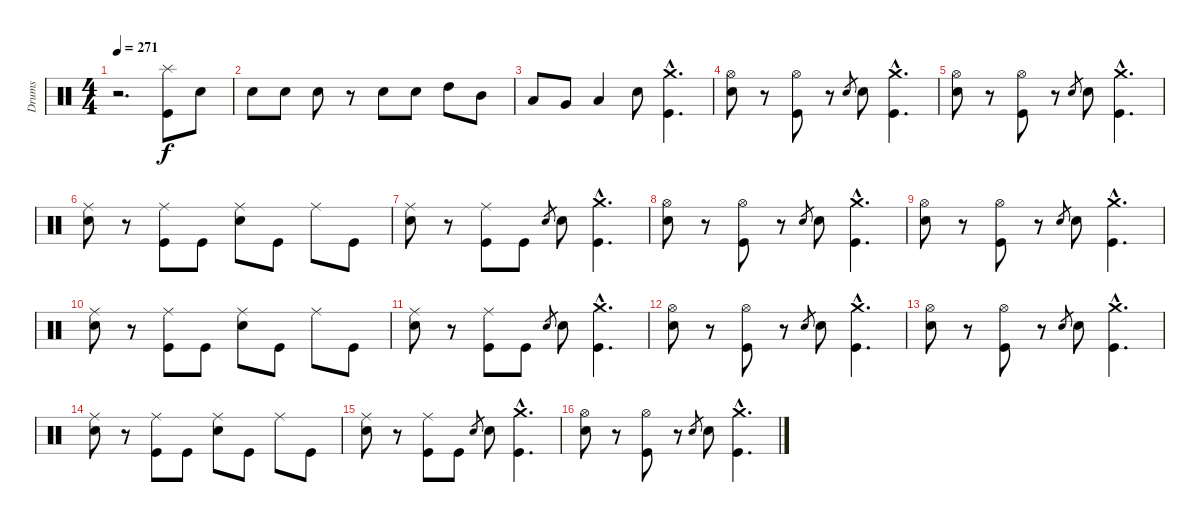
\track ("Drums" "Drums") {instrument percussion}
\staff {score}
\articulation defaults
\ts (4 4)
\tempo 271
\clef neutral
\ks c
r.2{d dy f} ("Splash (hit)" "Kick (hit)").8 "Snare (hit) 2".8 |
"Snare (hit) 2".8 "Snare (hit) 2".8 "Snare (hit) 2".8 r.8 "Snare (hit) 2".8 "Snare (hit) 2".8 "High Tom (hit)".8 "Mid Tom (hit)".8 |
"Low Tom (hit)".8 "Very Low Tom (hit)".8 "Low Floor Tom (hit)".4 "Snare (hit) 2".8 ("Crash medium (hit)"{hac} "Kick (hit)"{hac}).4{d} |
("Hi-Hat (open)" "Electric Snare (hit)").8 r.8 ("Hi-Hat (open)" "Kick (hit)").8 r.8 "Electric Snare (hit)".8{gr} "Electric Snare (hit)".8 ("Crash medium (hit)"{hac} "Kick (hit)"{hac}).4{d} |
("Hi-Hat (open)" "Electric Snare (hit)").8 r.8 ("Hi-Hat (open)" "Kick (hit)").8 r.8 "Electric Snare (hit)".8{gr} "Electric Snare (hit)".8 ("Crash medium (hit)"{hac} "Kick (hit)"{hac}).4{d} |
("Ride (middle)" "Electric Snare (hit)").8 r.8 ("Ride (middle)" "Kick (hit)").8 "Kick (hit)".8 ("Ride (middle)" "Electric Snare (hit)").8 "Kick (hit)".8 "Ride (middle)".8 "Kick (hit)".8 |
("Ride (middle)" "Electric Snare (hit)").8 r.8 ("Ride (middle)" "Kick (hit)").8 "Kick (hit)".8 "Electric Snare (hit)".8{gr} "Electric Snare (hit)".8 ("Crash medium (hit)"{hac} "Kick (hit)"{hac}).4{d} |
("Hi-Hat (open)" "Electric Snare (hit)").8 r.8 ("Hi-Hat (open)" "Kick (hit)").8 r.8 "Electric Snare (hit)".8{gr} "Electric Snare (hit)".8 ("Crash medium (hit)"{hac} "Kick (hit)"{hac}).4{d} |
("Hi-Hat (open)" "Electric Snare (hit)").8 r.8 ("Hi-Hat (open)" "Kick (hit)").8 r.8 "Electric Snare (hit)".8{gr} "Electric Snare (hit)".8 ("Crash medium (hit)"{hac} "Kick (hit)"{hac}).4{d} |
("Ride (middle)" "Electric Snare (hit)").8 r.8 ("Ride (middle)" "Kick (hit)").8 "Kick (hit)".8 ("Ride (middle)" "Electric Snare (hit)").8 "Kick (hit)".8 "Ride (middle)".8 "Kick (hit)".8 |
("Ride (middle)" "Electric Snare (hit)").8 r.8 ("Ride (middle)" "Kick (hit)").8 "Kick (hit)".8 "Electric Snare (hit)".8{gr} "Electric Snare (hit)".8 ("Crash medium (hit)"{hac} "Kick (hit)"{hac}).4{d} |
("Hi-Hat (open)" "Electric Snare (hit)").8 r.8 ("Hi-Hat (open)" "Kick (hit)").8 r.8 "Electric Snare (hit)".8{gr} "Electric Snare (hit)".8 ("Crash medium (hit)"{hac} "Kick (hit)"{hac}).4{d} |
("Hi-Hat (open)" "Electric Snare (hit)").8 r.8 ("Hi-Hat (open)" "Kick (hit)").8 r.8 "Electric Snare (hit)".8{gr} "Electric Snare (hit)".8 ("Crash medium (hit)"{hac} "Kick (hit)"{hac}).4{d} |
("Ride (middle)" "Electric Snare (hit)").8 r.8 ("Ride (middle)" "Kick (hit)").8 "Kick (hit)".8 ("Ride (middle)" "Electric Snare (hit)").8 "Kick (hit)".8 "Ride (middle)".8 "Kick (hit)".8 |
("Ride (middle)" "Electric Snare (hit)").8 r.8 ("Ride (middle)" "Kick (hit)").8 "Kick (hit)".8 "Electric Snare (hit)".8{gr} "Electric Snare (hit)".8 ("Crash medium (hit)"{hac} "Kick (hit)"{hac}).4{d} |
("Hi-Hat (open)" "Electric Snare (hit)").8 r.8 ("Hi-Hat (open)" "Kick (hit)").8 r.8 "Electric Snare (hit)".8{gr} "Electric Snare (hit)".8 ("Crash medium (hit)"{hac} "Kick (hit)"{hac}).4{d}
